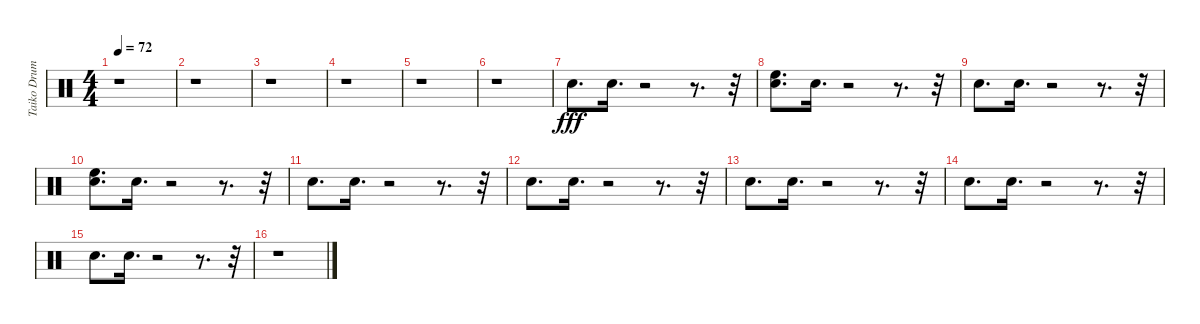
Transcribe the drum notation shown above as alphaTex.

\track ("Taiko Drum" "Taiko Drum") {instrument percussion}
\staff {score}
\articulation defaults
\ts (4 4)
\tempo 72
\clef neutral
\ks c
r.1{dy fff} |
r.1 |
r.1 |
r.1 |
r.1 |
r.1 |
"Snare (hit)".8{d} "Snare (hit)".16{d} r.2 r.8{d} r.32 |
("Snare (hit)" "High Floor Tom (hit)").8{d} "Snare (hit)".16{d} r.2 r.8{d} r.32 |
"Snare (hit)".8{d} "Snare (hit)".16{d} r.2 r.8{d} r.32 |
("Snare (hit)" "High Floor Tom (hit)").8{d} "Snare (hit)".16{d} r.2 r.8{d} r.32 |
"Snare (hit)".8{d} "Snare (hit)".16{d} r.2 r.8{d} r.32 |
"Snare (hit)".8{d} "Snare (hit)".16{d} r.2 r.8{d} r.32 |
"Snare (hit)".8{d} "Snare (hit)".16{d} r.2 r.8{d} r.32 |
"Snare (hit)".8{d} "Snare (hit)".16{d} r.2 r.8{d} r.32 |
"Snare (hit)".8{d} "Snare (hit)".16{d} r.2 r.8{d} r.32 |
r.1
